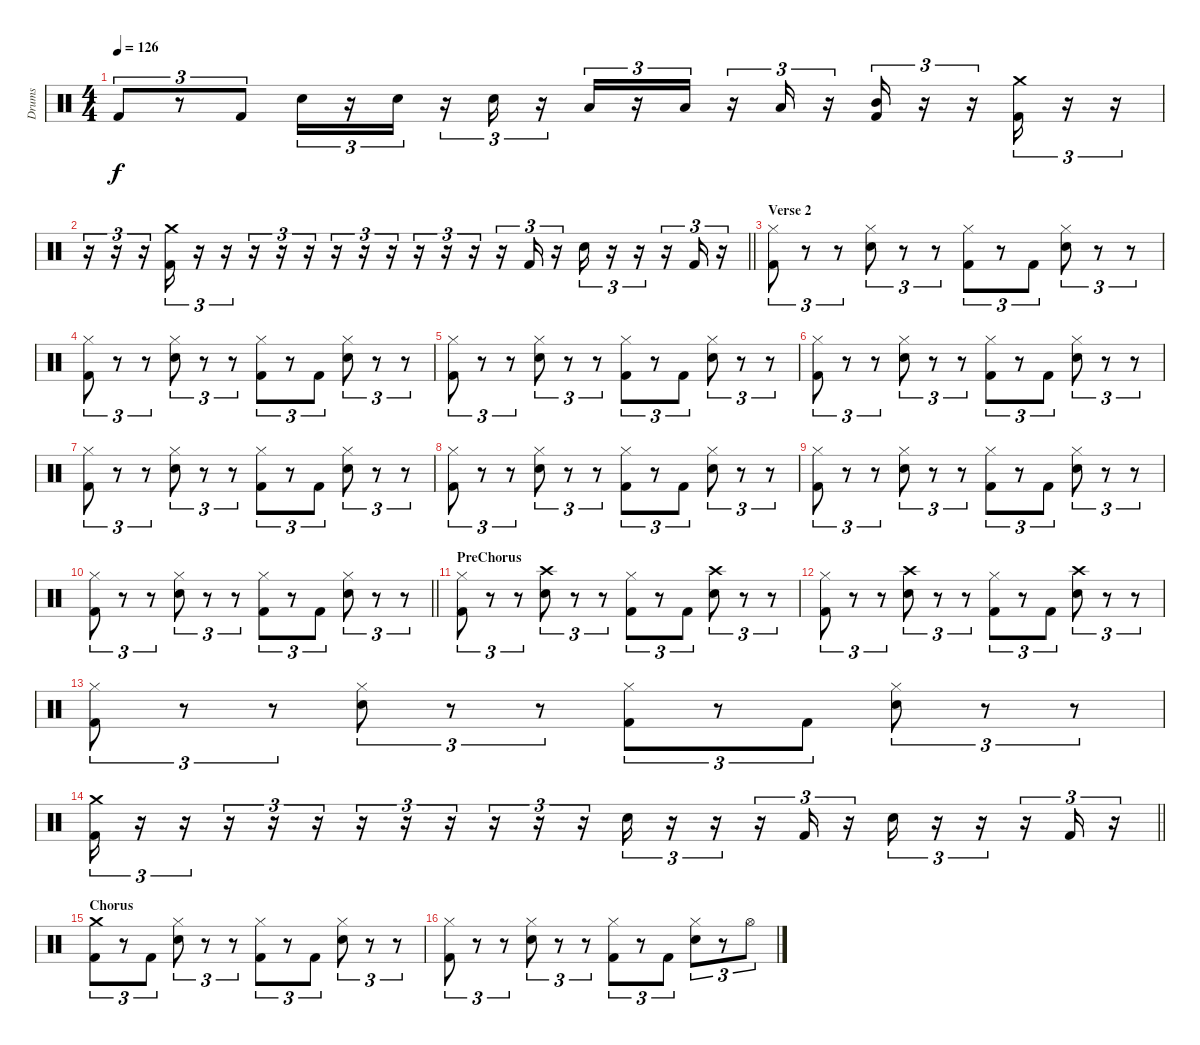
\track ("Drums" "Drums") {instrument percussion}
\staff {score}
\articulation defaults
\ts (4 4)
\tempo 126
\clef neutral
\ks c "Kick (hit) 2".8{tu (3 2) dy f}
r.8{tu (3 2)} "Kick (hit) 2".8{tu (3 2)} "Snare (hit) 2".16{tu (3 2)} r.16{tu (3 2)} "Snare (hit) 2".16{tu (3 2)} r.16{tu (3 2)} "Snare (hit) 2".16{tu (3 2)} r.16{tu (3 2)} "Low Tom (hit)".16{tu (3 2)} r.16{tu (3 2)} "Low Tom (hit)".16{tu (3 2)} r.16{tu (3 2)} "Low Tom (hit)".16{tu (3 2)} r.16{tu (3 2)} ("Mid Tom (hit)" "Kick (hit) 2").16{tu (3 2)} r.16{tu (3 2)} r.16{tu (3 2)} ("Crash medium (hit)" "Kick (hit) 2").16{tu (3 2)} r.16{tu (3 2)} r.16{tu (3 2)} |
\barLineRight lightlight
r.16{tu (3 2)} r.16{tu (3 2)} r.16{tu (3 2)} ("Crash medium (hit)" "Kick (hit) 2").16{tu (3 2)} r.16{tu (3 2)} r.16{tu (3 2)} r.16{tu (3 2)} r.16{tu (3 2)} r.16{tu (3 2)} r.16{tu (3 2)} r.16{tu (3 2)} r.16{tu (3 2)} r.16{tu (3 2)} r.16{tu (3 2)} r.16{tu (3 2)} r.16{tu (3 2)} "Kick (hit) 2".16{tu (3 2)} r.16{tu (3 2)} "Snare (hit) 2".16{tu (3 2)} r.16{tu (3 2)} r.16{tu (3 2)} r.16{tu (3 2)} "Kick (hit) 2".16{tu (3 2)} r.16{tu (3 2)} |
\section ("" "Verse 2")
("Hi-Hat (closed)" "Kick (hit) 2").8{tu (3 2)} r.8{tu (3 2)} r.8{tu (3 2)} ("Hi-Hat (closed)" "Snare (hit) 2").8{tu (3 2)} r.8{tu (3 2)} r.8{tu (3 2)} ("Hi-Hat (closed)" "Kick (hit) 2").8{tu (3 2)} r.8{tu (3 2)} "Kick (hit) 2".8{tu (3 2)} ("Hi-Hat (closed)" "Snare (hit) 2").8{tu (3 2)} r.8{tu (3 2)} r.8{tu (3 2)} |
("Hi-Hat (closed)" "Kick (hit) 2").8{tu (3 2)} r.8{tu (3 2)} r.8{tu (3 2)} ("Hi-Hat (closed)" "Snare (hit) 2").8{tu (3 2)} r.8{tu (3 2)} r.8{tu (3 2)} ("Hi-Hat (closed)" "Kick (hit) 2").8{tu (3 2)} r.8{tu (3 2)} "Kick (hit) 2".8{tu (3 2)} ("Hi-Hat (closed)" "Snare (hit) 2").8{tu (3 2)} r.8{tu (3 2)} r.8{tu (3 2)} |
("Hi-Hat (closed)" "Kick (hit) 2").8{tu (3 2)} r.8{tu (3 2)} r.8{tu (3 2)} ("Hi-Hat (closed)" "Snare (hit) 2").8{tu (3 2)} r.8{tu (3 2)} r.8{tu (3 2)} ("Hi-Hat (closed)" "Kick (hit) 2").8{tu (3 2)} r.8{tu (3 2)} "Kick (hit) 2".8{tu (3 2)} ("Hi-Hat (closed)" "Snare (hit) 2").8{tu (3 2)} r.8{tu (3 2)} r.8{tu (3 2)} |
("Hi-Hat (closed)" "Kick (hit) 2").8{tu (3 2)} r.8{tu (3 2)} r.8{tu (3 2)} ("Hi-Hat (closed)" "Snare (hit) 2").8{tu (3 2)} r.8{tu (3 2)} r.8{tu (3 2)} ("Hi-Hat (closed)" "Kick (hit) 2").8{tu (3 2)} r.8{tu (3 2)} "Kick (hit) 2".8{tu (3 2)} ("Hi-Hat (closed)" "Snare (hit) 2").8{tu (3 2)} r.8{tu (3 2)} r.8{tu (3 2)} |
("Hi-Hat (closed)" "Kick (hit) 2").8{tu (3 2)} r.8{tu (3 2)} r.8{tu (3 2)} ("Hi-Hat (closed)" "Snare (hit) 2").8{tu (3 2)} r.8{tu (3 2)} r.8{tu (3 2)} ("Hi-Hat (closed)" "Kick (hit) 2").8{tu (3 2)} r.8{tu (3 2)} "Kick (hit) 2".8{tu (3 2)} ("Hi-Hat (closed)" "Snare (hit) 2").8{tu (3 2)} r.8{tu (3 2)} r.8{tu (3 2)} |
("Hi-Hat (closed)" "Kick (hit) 2").8{tu (3 2)} r.8{tu (3 2)} r.8{tu (3 2)} ("Hi-Hat (closed)" "Snare (hit) 2").8{tu (3 2)} r.8{tu (3 2)} r.8{tu (3 2)} ("Hi-Hat (closed)" "Kick (hit) 2").8{tu (3 2)} r.8{tu (3 2)} "Kick (hit) 2".8{tu (3 2)} ("Hi-Hat (closed)" "Snare (hit) 2").8{tu (3 2)} r.8{tu (3 2)} r.8{tu (3 2)} |
("Hi-Hat (closed)" "Kick (hit) 2").8{tu (3 2)} r.8{tu (3 2)} r.8{tu (3 2)} ("Hi-Hat (closed)" "Snare (hit) 2").8{tu (3 2)} r.8{tu (3 2)} r.8{tu (3 2)} ("Hi-Hat (closed)" "Kick (hit) 2").8{tu (3 2)} r.8{tu (3 2)} "Kick (hit) 2".8{tu (3 2)} ("Hi-Hat (closed)" "Snare (hit) 2").8{tu (3 2)} r.8{tu (3 2)} r.8{tu (3 2)} |
\barLineRight lightlight
("Hi-Hat (closed)" "Kick (hit) 2").8{tu (3 2)} r.8{tu (3 2)} r.8{tu (3 2)} ("Hi-Hat (closed)" "Snare (hit) 2").8{tu (3 2)} r.8{tu (3 2)} r.8{tu (3 2)} ("Hi-Hat (closed)" "Kick (hit) 2").8{tu (3 2)} r.8{tu (3 2)} "Kick (hit) 2".8{tu (3 2)} ("Hi-Hat (closed)" "Snare (hit) 2").8{tu (3 2)} r.8{tu (3 2)} r.8{tu (3 2)} |
\section ("" "PreChorus")
("Hi-Hat (closed)" "Kick (hit) 2").8{tu (3 2)} r.8{tu (3 2)} r.8{tu (3 2)} ("Crash high (hit)" "Snare (hit) 2").8{tu (3 2)} r.8{tu (3 2)} r.8{tu (3 2)} ("Hi-Hat (closed)" "Kick (hit) 2").8{tu (3 2)} r.8{tu (3 2)} "Kick (hit) 2".8{tu (3 2)} ("Crash high (hit)" "Snare (hit) 2").8{tu (3 2)} r.8{tu (3 2)} r.8{tu (3 2)} |
("Hi-Hat (closed)" "Kick (hit) 2").8{tu (3 2)} r.8{tu (3 2)} r.8{tu (3 2)} ("Crash high (hit)" "Snare (hit) 2").8{tu (3 2)} r.8{tu (3 2)} r.8{tu (3 2)} ("Hi-Hat (closed)" "Kick (hit) 2").8{tu (3 2)} r.8{tu (3 2)} "Kick (hit) 2".8{tu (3 2)} ("Crash high (hit)" "Snare (hit) 2").8{tu (3 2)} r.8{tu (3 2)} r.8{tu (3 2)} |
("Hi-Hat (closed)" "Kick (hit) 2").8{tu (3 2)} r.8{tu (3 2)} r.8{tu (3 2)} ("Hi-Hat (closed)" "Snare (hit) 2").8{tu (3 2)} r.8{tu (3 2)} r.8{tu (3 2)} ("Hi-Hat (closed)" "Kick (hit) 2").8{tu (3 2)} r.8{tu (3 2)} "Kick (hit) 2".8{tu (3 2)} ("Hi-Hat (closed)" "Snare (hit) 2").8{tu (3 2)} r.8{tu (3 2)} r.8{tu (3 2)} |
\barLineRight lightlight
("Crash medium (hit)" "Kick (hit) 2").16{tu (3 2)} r.16{tu (3 2)} r.16{tu (3 2)} r.16{tu (3 2)} r.16{tu (3 2)} r.16{tu (3 2)} r.16{tu (3 2)} r.16{tu (3 2)} r.16{tu (3 2)} r.16{tu (3 2)} r.16{tu (3 2)} r.16{tu (3 2)} "Snare (hit) 2".16{tu (3 2)} r.16{tu (3 2)} r.16{tu (3 2)} r.16{tu (3 2)} "Kick (hit) 2".16{tu (3 2)} r.16{tu (3 2)} "Snare (hit) 2".16{tu (3 2)} r.16{tu (3 2)} r.16{tu (3 2)} r.16{tu (3 2)} "Kick (hit) 2".16{tu (3 2)} r.16{tu (3 2)} |
\section ("" "Chorus")
("Crash medium (hit)" "Kick (hit) 2").8{tu (3 2)} r.8{tu (3 2)} "Kick (hit) 2".8{tu (3 2)} ("Hi-Hat (closed)" "Snare (hit) 2").8{tu (3 2)} r.8{tu (3 2)} r.8{tu (3 2)} ("Hi-Hat (closed)" "Kick (hit) 2").8{tu (3 2)} r.8{tu (3 2)} "Kick (hit) 2".8{tu (3 2)} ("Hi-Hat (closed)" "Snare (hit) 2").8{tu (3 2)} r.8{tu (3 2)} r.8{tu (3 2)} |
("Hi-Hat (closed)" "Kick (hit) 2").8{tu (3 2)} r.8{tu (3 2)} r.8{tu (3 2)} ("Hi-Hat (closed)" "Snare (hit) 2").8{tu (3 2)} r.8{tu (3 2)} r.8{tu (3 2)} ("Hi-Hat (closed)" "Kick (hit) 2").8{tu (3 2)} r.8{tu (3 2)} "Kick (hit) 2".8{tu (3 2)} ("Hi-Hat (closed)" "Snare (hit) 2").8{tu (3 2)} r.8{tu (3 2)} "Hi-Hat (open)".8{tu (3 2)}
